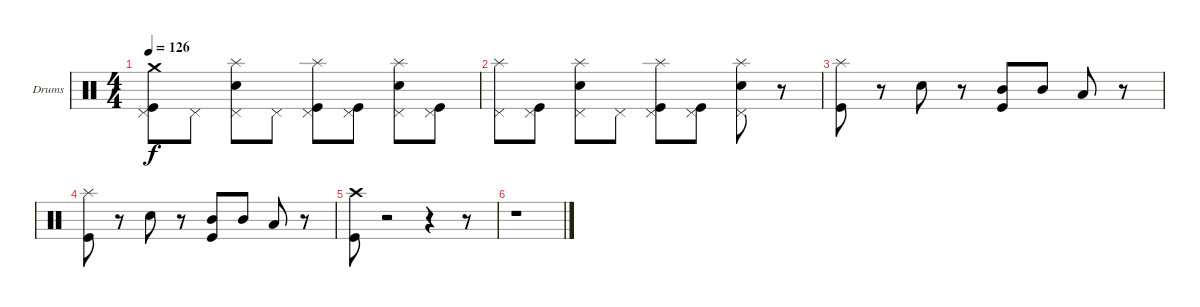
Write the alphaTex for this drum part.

\bracketExtendMode groupsimilarinstruments
\firstSystemTrackNameOrientation horizontal
\otherSystemsTrackNameOrientation horizontal
\track ("Drumkit" "Drums") {instrument percussion}
\staff {score}
\articulation defaults
\ts (4 4)
\tempo 126
\clef neutral
\ks c
("Pedal Hi-Hat (hit)" "Kick (hit)" "Crash medium (hit)").8{dy f} "Pedal Hi-Hat (hit)".8 ("Pedal Hi-Hat (hit)" "Snare (hit) 2" "Splash (hit)").8 "Pedal Hi-Hat (hit)".8 ("Pedal Hi-Hat (hit)" "Kick (hit)" "Splash (hit)").8 ("Kick (hit)" "Pedal Hi-Hat (hit)").8 ("Splash (hit)" "Snare (hit) 2" "Pedal Hi-Hat (hit)").8 ("Pedal Hi-Hat (hit)" "Kick (hit)").8 |
("Splash (hit)" "Pedal Hi-Hat (hit)").8 ("Kick (hit)" "Pedal Hi-Hat (hit)").8 ("Splash (hit)" "Snare (hit) 2" "Pedal Hi-Hat (hit)").8 "Pedal Hi-Hat (hit)".8 ("Splash (hit)" "Kick (hit)" "Pedal Hi-Hat (hit)").8 ("Pedal Hi-Hat (hit)" "Kick (hit)").8 ("Pedal Hi-Hat (hit)" "Snare (hit) 2" "Splash (hit)").8 r.8 |
("Kick (hit)" "Splash (hit)").8 r.8 "Snare (hit) 2".8 r.8 ("Mid Tom (hit)" "Kick (hit)").8 "Mid Tom (hit)".8 "Low Tom (hit)".8 r.8 |
("Kick (hit)" "Splash (hit)").8 r.8 "Snare (hit) 2".8 r.8 ("Mid Tom (hit)" "Kick (hit)").8 "Mid Tom (hit)".8 "Low Tom (hit)".8 r.8 |
("Kick (hit)" "Crash high (hit)").8 r.2 r.4 r.8 |
r.1
